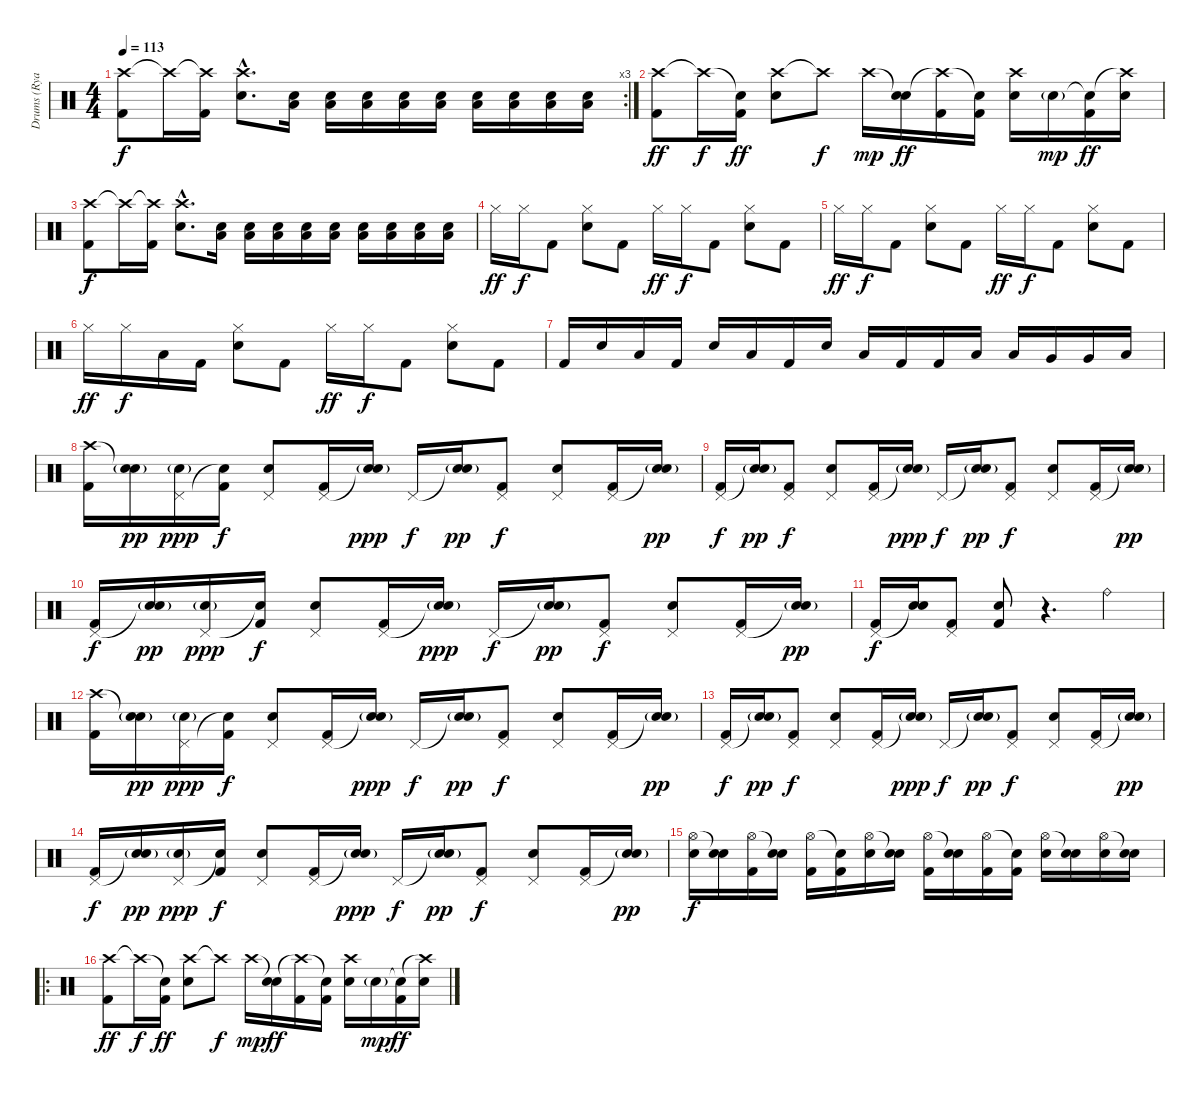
\track ("Drums (Ryan \"Nik\" Vikedal)" "Drums (Rya") {instrument percussion}
\staff {score}
\articulation defaults
\rc 3
\ts (4 4)
\tempo 113
\clef neutral
\ks c
("Crash high (hit)" "Kick (hit) 2").8{dy f} "Crash high (hit)"{t}.16 ("Crash high (hit)"{t} "Kick (hit) 2").16 ("Crash high (hit)"{hac} "Electric Snare (hit)"{hac}).8{d} ("Low Tom (hit)" "Electric Snare (hit)").16 ("Low Tom (hit)" "Electric Snare (hit)").16 ("Low Tom (hit)" "Electric Snare (hit)").16 ("Low Tom (hit)" "Electric Snare (hit)").16 ("Low Tom (hit)" "Electric Snare (hit)").16 ("Low Tom (hit)" "Electric Snare (hit)").16 ("Low Tom (hit)" "Electric Snare (hit)").16 ("Low Tom (hit)" "Electric Snare (hit)").16 ("Low Tom (hit)" "Electric Snare (hit)").16 |
("Crash high (hit)" "Kick (hit) 2").8{dy ff} "Crash high (hit)"{t}.16{dy f} ("Snare (hit)"{t} "Kick (hit) 2").16{dy ff} ("Crash high (hit)" "Electric Snare (hit)").8 "Crash high (hit)"{t}.8{dy f} "Crash high (hit)".16{dy mp} ("Snare (hit)"{t} "Electric Snare (hit)").16{dy ff} ("Crash high (hit)"{t} "Kick (hit) 2").16 ("Snare (hit)"{t} "Kick (hit) 2").16 ("Crash high (hit)" "Electric Snare (hit)").16 "Electric Snare (hit)"{g}.16{dy mp} ("Snare (hit)"{t} "Kick (hit) 2").16{dy ff} ("Crash high (hit)"{t} "Electric Snare (hit)").16 |
("Crash high (hit)" "Kick (hit) 2").8{dy f} "Crash high (hit)"{t}.16 ("Crash high (hit)"{t} "Kick (hit) 2").16 ("Crash high (hit)"{hac} "Electric Snare (hit)"{hac}).8{d} ("Low Tom (hit)" "Electric Snare (hit)").16 ("Low Tom (hit)" "Electric Snare (hit)").16 ("Low Tom (hit)" "Electric Snare (hit)").16 ("Low Tom (hit)" "Electric Snare (hit)").16 ("Low Tom (hit)" "Electric Snare (hit)").16 ("Low Tom (hit)" "Electric Snare (hit)").16 ("Low Tom (hit)" "Electric Snare (hit)").16 ("Low Tom (hit)" "Electric Snare (hit)").16 ("Low Tom (hit)" "Electric Snare (hit)").16 |
"Hi-Hat (closed)".16{dy ff} "Hi-Hat (closed)".16{dy f} "Kick (hit) 2".8 ("Hi-Hat (closed)" "Electric Snare (hit)").8 "Kick (hit) 2".8 "Hi-Hat (closed)".16{dy ff} "Hi-Hat (closed)".16{dy f} "Kick (hit) 2".8 ("Hi-Hat (closed)" "Electric Snare (hit)").8 "Kick (hit) 2".8 |
"Hi-Hat (closed)".16{dy ff} "Hi-Hat (closed)".16{dy f} "Kick (hit) 2".8 ("Hi-Hat (closed)" "Electric Snare (hit)").8 "Kick (hit) 2".8 "Hi-Hat (closed)".16{dy ff} "Hi-Hat (closed)".16{dy f} "Kick (hit) 2".8 ("Hi-Hat (closed)" "Electric Snare (hit)").8 "Kick (hit) 2".8 |
"Hi-Hat (closed)".16{dy ff} "Hi-Hat (closed)".16{dy f} "Low Tom (hit)".16 "Kick (hit) 2".16 ("Hi-Hat (closed)" "Electric Snare (hit)").8 "Kick (hit) 2".8 "Hi-Hat (closed)".16{dy ff} "Hi-Hat (closed)".16{dy f} "Kick (hit) 2".8 ("Hi-Hat (closed)" "Electric Snare (hit)").8 "Kick (hit) 2".8 |
"Kick (hit) 2".16 "Electric Snare (hit)".16 "Low Tom (hit)".16 "Kick (hit) 2".16 "Electric Snare (hit)".16 "Low Tom (hit)".16 "Kick (hit) 2".16 "Electric Snare (hit)".16 "Low Tom (hit)".16 "Kick (hit) 2".16 "Kick (hit) 2".16 "Low Tom (hit)".16 "Low Tom (hit)".16 "Very Low Tom (hit)".16 "Very Low Tom (hit)".16 "Low Floor Tom (hit)".16 |
("Crash high (hit)" "Kick (hit) 2").16 ("Snare (hit)"{t} "Electric Snare (hit)"{g}).16{dy pp} ("Pedal Hi-Hat (hit)" "Electric Snare (hit)"{g}).16{dy ppp} ("Snare (hit)"{t} "Kick (hit) 2").16{dy f} ("Pedal Hi-Hat (hit)" "Electric Snare (hit)").8 ("Pedal Hi-Hat (hit)" "Kick (hit) 2").16 ("Snare (hit)"{t} "Electric Snare (hit)"{g}).16{dy ppp} "Pedal Hi-Hat (hit)".16{dy f} ("Snare (hit)"{t} "Electric Snare (hit)"{g}).16{dy pp} ("Pedal Hi-Hat (hit)" "Kick (hit) 2").8{dy f} ("Pedal Hi-Hat (hit)" "Electric Snare (hit)").8 ("Pedal Hi-Hat (hit)" "Kick (hit) 2").16 ("Snare (hit)"{t} "Electric Snare (hit)"{g}).16{dy pp} |
("Pedal Hi-Hat (hit)" "Kick (hit) 2").16{dy f} ("Snare (hit)"{t} "Electric Snare (hit)"{g}).16{dy pp} ("Pedal Hi-Hat (hit)" "Kick (hit) 2").8{dy f} ("Pedal Hi-Hat (hit)" "Electric Snare (hit)").8 ("Pedal Hi-Hat (hit)" "Kick (hit) 2").16 ("Snare (hit)"{t} "Electric Snare (hit)"{g}).16{dy ppp} "Pedal Hi-Hat (hit)".16{dy f} ("Snare (hit)"{t} "Electric Snare (hit)"{g}).16{dy pp} ("Pedal Hi-Hat (hit)" "Kick (hit) 2").8{dy f} ("Pedal Hi-Hat (hit)" "Electric Snare (hit)").8 ("Pedal Hi-Hat (hit)" "Kick (hit) 2").16 ("Snare (hit)"{t} "Electric Snare (hit)"{g}).16{dy pp} |
("Pedal Hi-Hat (hit)" "Kick (hit) 2").16{dy f} ("Snare (hit)"{t} "Electric Snare (hit)"{g}).16{dy pp} ("Pedal Hi-Hat (hit)" "Electric Snare (hit)"{g}).16{dy ppp} ("Snare (hit)"{t} "Kick (hit) 2").16{dy f} ("Pedal Hi-Hat (hit)" "Electric Snare (hit)").8 ("Pedal Hi-Hat (hit)" "Kick (hit) 2").16 ("Snare (hit)"{t} "Electric Snare (hit)"{g}).16{dy ppp} "Pedal Hi-Hat (hit)".16{dy f} ("Snare (hit)"{t} "Electric Snare (hit)"{g}).16{dy pp} ("Pedal Hi-Hat (hit)" "Kick (hit) 2").8{dy f} ("Pedal Hi-Hat (hit)" "Electric Snare (hit)").8 ("Pedal Hi-Hat (hit)" "Kick (hit) 2").16 ("Snare (hit)"{t} "Electric Snare (hit)"{g}).16{dy pp} |
("Pedal Hi-Hat (hit)" "Kick (hit) 2").16{dy f} ("Snare (hit)"{t} "Electric Snare (hit)").16 ("Pedal Hi-Hat (hit)" "Kick (hit) 2").8 ("Electric Snare (hit)" "Kick (hit) 2").8 r.4{d} "Ride (bell)".4 |
("Crash high (hit)" "Kick (hit) 2").16 ("Snare (hit)"{t} "Electric Snare (hit)"{g}).16{dy pp} ("Pedal Hi-Hat (hit)" "Electric Snare (hit)"{g}).16{dy ppp} ("Snare (hit)"{t} "Kick (hit) 2").16{dy f} ("Pedal Hi-Hat (hit)" "Electric Snare (hit)").8 ("Pedal Hi-Hat (hit)" "Kick (hit) 2").16 ("Snare (hit)"{t} "Electric Snare (hit)"{g}).16{dy ppp} "Pedal Hi-Hat (hit)".16{dy f} ("Snare (hit)"{t} "Electric Snare (hit)"{g}).16{dy pp} ("Pedal Hi-Hat (hit)" "Kick (hit) 2").8{dy f} ("Pedal Hi-Hat (hit)" "Electric Snare (hit)").8 ("Pedal Hi-Hat (hit)" "Kick (hit) 2").16 ("Snare (hit)"{t} "Electric Snare (hit)"{g}).16{dy pp} |
("Pedal Hi-Hat (hit)" "Kick (hit) 2").16{dy f} ("Snare (hit)"{t} "Electric Snare (hit)"{g}).16{dy pp} ("Pedal Hi-Hat (hit)" "Kick (hit) 2").8{dy f} ("Pedal Hi-Hat (hit)" "Electric Snare (hit)").8 ("Pedal Hi-Hat (hit)" "Kick (hit) 2").16 ("Snare (hit)"{t} "Electric Snare (hit)"{g}).16{dy ppp} "Pedal Hi-Hat (hit)".16{dy f} ("Snare (hit)"{t} "Electric Snare (hit)"{g}).16{dy pp} ("Pedal Hi-Hat (hit)" "Kick (hit) 2").8{dy f} ("Pedal Hi-Hat (hit)" "Electric Snare (hit)").8 ("Pedal Hi-Hat (hit)" "Kick (hit) 2").16 ("Snare (hit)"{t} "Electric Snare (hit)"{g}).16{dy pp} |
("Pedal Hi-Hat (hit)" "Kick (hit) 2").16{dy f} ("Snare (hit)"{t} "Electric Snare (hit)"{g}).16{dy pp} ("Pedal Hi-Hat (hit)" "Electric Snare (hit)"{g}).16{dy ppp} ("Snare (hit)"{t} "Kick (hit) 2").16{dy f} ("Pedal Hi-Hat (hit)" "Electric Snare (hit)").8 ("Pedal Hi-Hat (hit)" "Kick (hit) 2").16 ("Snare (hit)"{t} "Electric Snare (hit)"{g}).16{dy ppp} "Pedal Hi-Hat (hit)".16{dy f} ("Snare (hit)"{t} "Electric Snare (hit)"{g}).16{dy pp} ("Pedal Hi-Hat (hit)" "Kick (hit) 2").8{dy f} ("Pedal Hi-Hat (hit)" "Electric Snare (hit)").8 ("Pedal Hi-Hat (hit)" "Kick (hit) 2").16 ("Snare (hit)"{t} "Electric Snare (hit)"{g}).16{dy pp} |
("Hi-Hat (open)" "Electric Snare (hit)").16{dy f} ("Snare (hit)"{t} "Electric Snare (hit)").16 ("Hi-Hat (open)" "Kick (hit) 2").16 ("Snare (hit)"{t} "Electric Snare (hit)").16 ("Hi-Hat (open)" "Kick (hit) 2").16 ("Snare (hit)"{t} "Kick (hit) 2").16 ("Hi-Hat (open)" "Electric Snare (hit)").16 ("Snare (hit)"{t} "Electric Snare (hit)").16 ("Hi-Hat (open)" "Kick (hit) 2").16 ("Snare (hit)"{t} "Electric Snare (hit)").16 ("Hi-Hat (open)" "Kick (hit) 2").16 ("Snare (hit)"{t} "Kick (hit) 2").16 ("Hi-Hat (open)" "Electric Snare (hit)").16 ("Snare (hit)"{t} "Electric Snare (hit)").16 ("Hi-Hat (open)" "Electric Snare (hit)").16 ("Snare (hit)"{t} "Electric Snare (hit)").16 |
\ro
("Crash high (hit)" "Kick (hit) 2").8{dy ff} "Crash high (hit)"{t}.16{dy f} ("Snare (hit)"{t} "Kick (hit) 2").16{dy ff} ("Crash high (hit)" "Electric Snare (hit)").8 "Crash high (hit)"{t}.8{dy f} "Crash high (hit)".16{dy mp} ("Snare (hit)"{t} "Electric Snare (hit)").16{dy ff} ("Crash high (hit)"{t} "Kick (hit) 2").16 ("Snare (hit)"{t} "Kick (hit) 2").16 ("Crash high (hit)" "Electric Snare (hit)").16 "Electric Snare (hit)"{g}.16{dy mp} ("Snare (hit)"{t} "Kick (hit) 2").16{dy ff} ("Crash high (hit)"{t} "Electric Snare (hit)").16
